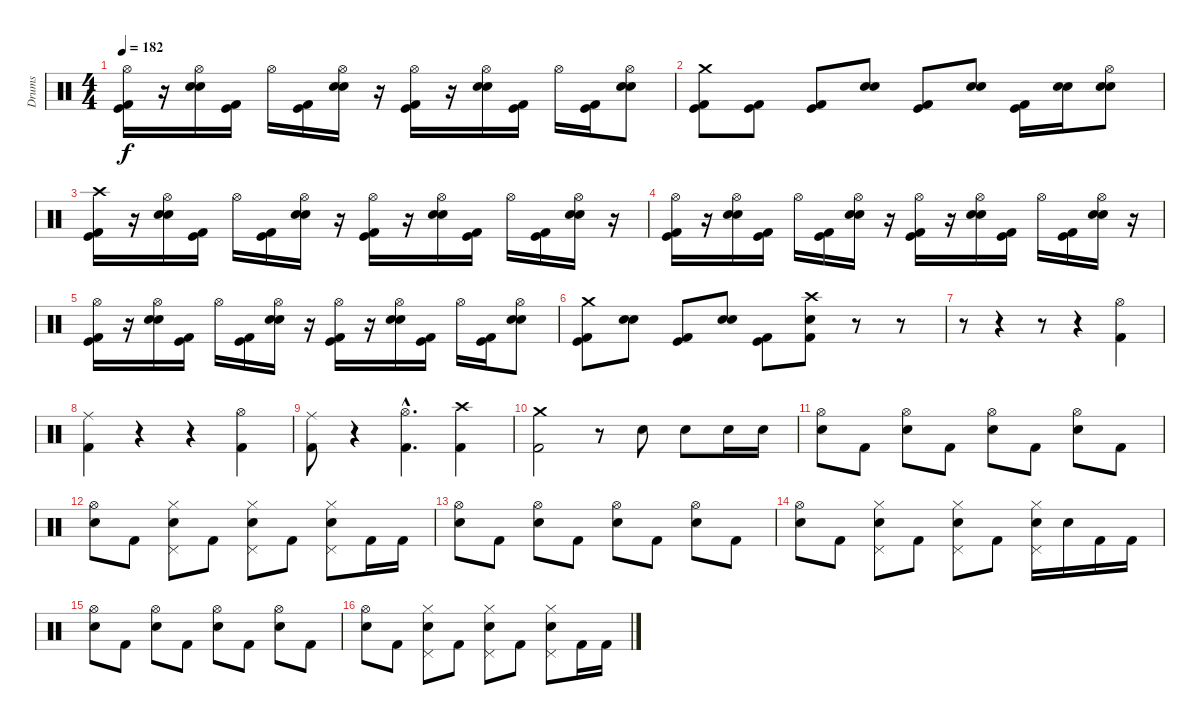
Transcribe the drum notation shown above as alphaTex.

\track ("Drums" "Drums") {instrument percussion}
\staff {score}
\articulation defaults
\ts (4 4)
\tempo 182
\clef neutral
\ks c
("Hi-Hat (open)" "Kick (hit) 2" "Kick (hit)").16{dy f} r.16 ("Hi-Hat (open)" "Snare (hit) 2" "Electric Snare (hit)").16 ("Kick (hit) 2" "Kick (hit)").16 "Hi-Hat (open)".16 ("Kick (hit) 2" "Kick (hit)").16 ("Hi-Hat (open)" "Snare (hit) 2" "Electric Snare (hit)").16 r.16 ("Hi-Hat (open)" "Kick (hit) 2" "Kick (hit)").16 r.16 ("Hi-Hat (open)" "Snare (hit) 2" "Electric Snare (hit)").16 ("Kick (hit) 2" "Kick (hit)").16 "Hi-Hat (open)".16 ("Kick (hit) 2" "Kick (hit)").16 ("Hi-Hat (open)" "Snare (hit) 2" "Electric Snare (hit)").8 |
("Crash medium (hit)" "Kick (hit) 2" "Kick (hit)").8 ("Kick (hit) 2" "Kick (hit)").8 ("Kick (hit) 2" "Kick (hit)").8 ("Electric Snare (hit)" "Electric Snare (hit)").8 ("Kick (hit) 2" "Kick (hit)").8 ("Electric Snare (hit)" "Electric Snare (hit)").8 ("Kick (hit) 2" "Kick (hit)").16 ("Electric Snare (hit)" "Electric Snare (hit)").16 ("Hi-Hat (open)" "Electric Snare (hit)" "Snare (hit) 2").8 |
("Crash high (hit)" "Kick (hit) 2" "Kick (hit)").16 r.16 ("Hi-Hat (open)" "Snare (hit) 2" "Electric Snare (hit)").16 ("Kick (hit) 2" "Kick (hit)").16 "Hi-Hat (open)".16 ("Kick (hit) 2" "Kick (hit)").16 ("Hi-Hat (open)" "Snare (hit) 2" "Electric Snare (hit)").16 r.16 ("Hi-Hat (open)" "Kick (hit) 2" "Kick (hit)").16 r.16 ("Hi-Hat (open)" "Snare (hit) 2" "Electric Snare (hit)").16 ("Kick (hit) 2" "Kick (hit)").16 "Hi-Hat (open)".16 ("Kick (hit) 2" "Kick (hit)").16 ("Hi-Hat (open)" "Snare (hit) 2" "Electric Snare (hit)").16 r.16 |
("Hi-Hat (open)" "Kick (hit) 2" "Kick (hit)").16 r.16 ("Hi-Hat (open)" "Snare (hit) 2" "Electric Snare (hit)").16 ("Kick (hit) 2" "Kick (hit)").16 "Hi-Hat (open)".16 ("Kick (hit) 2" "Kick (hit)").16 ("Hi-Hat (open)" "Snare (hit) 2" "Electric Snare (hit)").16 r.16 ("Hi-Hat (open)" "Kick (hit) 2" "Kick (hit)").16 r.16 ("Hi-Hat (open)" "Snare (hit) 2" "Electric Snare (hit)").16 ("Kick (hit) 2" "Kick (hit)").16 "Hi-Hat (open)".16 ("Kick (hit) 2" "Kick (hit)").16 ("Hi-Hat (open)" "Snare (hit) 2" "Electric Snare (hit)").16 r.16 |
("Hi-Hat (open)" "Kick (hit) 2" "Kick (hit)").16 r.16 ("Hi-Hat (open)" "Snare (hit) 2" "Electric Snare (hit)").16 ("Kick (hit) 2" "Kick (hit)").16 "Hi-Hat (open)".16 ("Kick (hit) 2" "Kick (hit)").16 ("Hi-Hat (open)" "Snare (hit) 2" "Electric Snare (hit)").16 r.16 ("Hi-Hat (open)" "Kick (hit) 2" "Kick (hit)").16 r.16 ("Hi-Hat (open)" "Snare (hit) 2" "Electric Snare (hit)").16 ("Kick (hit) 2" "Kick (hit)").16 "Hi-Hat (open)".16 ("Kick (hit) 2" "Kick (hit)").16 ("Hi-Hat (open)" "Snare (hit) 2" "Electric Snare (hit)").8 |
("Crash medium (hit)" "Kick (hit) 2" "Kick (hit)").8 ("Snare (hit) 2" "Snare (hit) 2").8 ("Kick (hit) 2" "Kick (hit)").8 ("Snare (hit) 2" "Snare (hit) 2").8 ("Kick (hit) 2" "Kick (hit)").8 ("Crash high (hit)" "Kick (hit) 2" "Snare (hit) 2").8 r.8 r.8 |
r.8 r.4 r.8 r.4 ("Hi-Hat (open)" "Kick (hit) 2").4 |
("Ride (middle)" "Kick (hit) 2").4 r.4 r.4 ("Hi-Hat (open)" "Kick (hit) 2").4 |
("Ride (middle)" "Kick (hit) 2").8 r.4 ("Hi-Hat (open)"{hac} "Kick (hit) 2"{hac}).4{d} ("Crash high (hit)" "Kick (hit) 2").4 |
("Crash medium (hit)" "Kick (hit) 2").2 r.8 "Snare (hit) 2".8 "Snare (hit) 2".8 "Snare (hit) 2".16 "Snare (hit) 2".16 |
("Hi-Hat (open)" "Snare (hit) 2").8 "Kick (hit) 2".8 ("Hi-Hat (open)" "Snare (hit) 2").8 "Kick (hit) 2".8 ("Hi-Hat (open)" "Snare (hit) 2").8 "Kick (hit) 2".8 ("Hi-Hat (open)" "Snare (hit) 2").8 "Kick (hit) 2".8 |
("Hi-Hat (open)" "Snare (hit) 2").8 "Kick (hit) 2".8 ("Pedal Hi-Hat (hit)" "Hi-Hat (closed)" "Snare (hit) 2").8 "Kick (hit) 2".8 ("Pedal Hi-Hat (hit)" "Hi-Hat (closed)" "Snare (hit) 2").8 "Kick (hit) 2".8 ("Pedal Hi-Hat (hit)" "Hi-Hat (closed)" "Snare (hit) 2").8 "Kick (hit) 2".16 "Kick (hit) 2".16 |
("Hi-Hat (open)" "Snare (hit) 2").8 "Kick (hit) 2".8 ("Hi-Hat (open)" "Snare (hit) 2").8 "Kick (hit) 2".8 ("Hi-Hat (open)" "Snare (hit) 2").8 "Kick (hit) 2".8 ("Hi-Hat (open)" "Snare (hit) 2").8 "Kick (hit) 2".8 |
("Hi-Hat (open)" "Snare (hit) 2").8 "Kick (hit) 2".8 ("Pedal Hi-Hat (hit)" "Hi-Hat (closed)" "Snare (hit) 2").8 "Kick (hit) 2".8 ("Pedal Hi-Hat (hit)" "Hi-Hat (closed)" "Snare (hit) 2").8 "Kick (hit) 2".8 ("Pedal Hi-Hat (hit)" "Hi-Hat (closed)" "Snare (hit) 2").16 "Snare (hit) 2".16 "Kick (hit) 2".16 "Kick (hit) 2".16 |
("Hi-Hat (open)" "Snare (hit) 2").8 "Kick (hit) 2".8 ("Hi-Hat (open)" "Snare (hit) 2").8 "Kick (hit) 2".8 ("Hi-Hat (open)" "Snare (hit) 2").8 "Kick (hit) 2".8 ("Hi-Hat (open)" "Snare (hit) 2").8 "Kick (hit) 2".8 |
("Hi-Hat (open)" "Snare (hit) 2").8 "Kick (hit) 2".8 ("Pedal Hi-Hat (hit)" "Hi-Hat (closed)" "Snare (hit) 2").8 "Kick (hit) 2".8 ("Pedal Hi-Hat (hit)" "Hi-Hat (closed)" "Snare (hit) 2").8 "Kick (hit) 2".8 ("Pedal Hi-Hat (hit)" "Hi-Hat (closed)" "Snare (hit) 2").8 "Kick (hit) 2".16 "Kick (hit) 2".16
